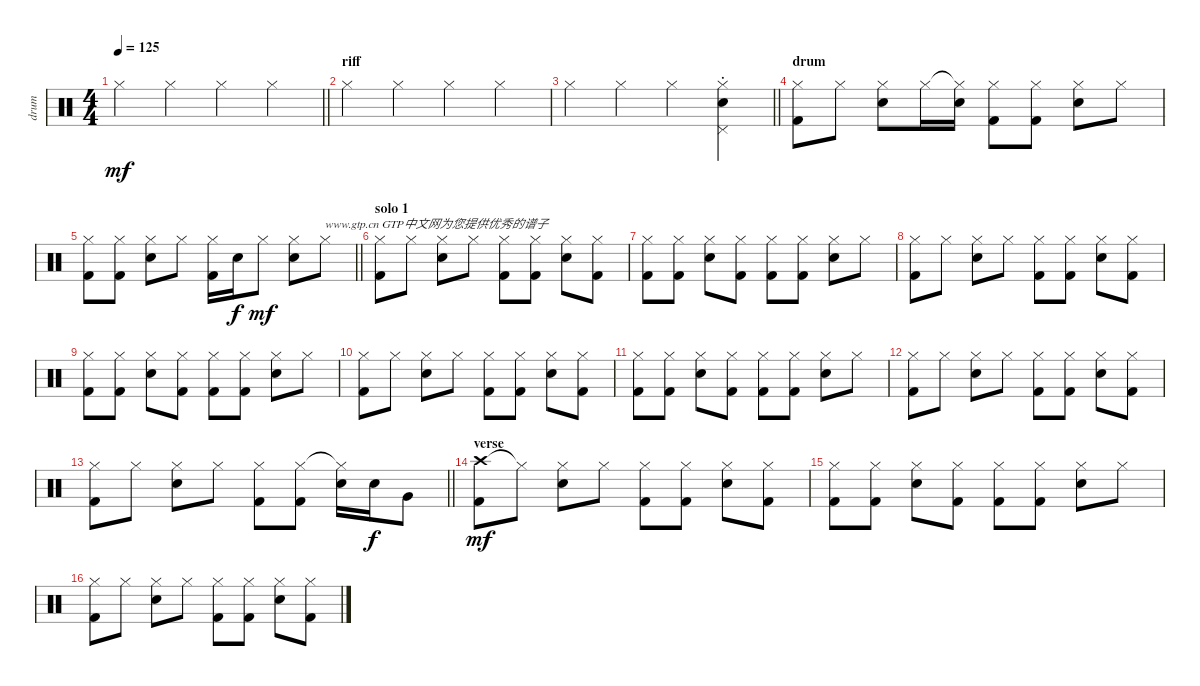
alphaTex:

\track ("drum" "drum") {instrument percussion}
\staff {score}
\articulation defaults
\ts (4 4)
\tempo 125
\clef neutral
\barLineRight lightlight
\ks c "Hi-Hat (closed)".4{dy mf} "Hi-Hat (closed)".4 "Hi-Hat (closed)".4 "Hi-Hat (closed)".4
|
\section ("" "riff")
"Hi-Hat (closed)".4 "Hi-Hat (closed)".4 "Hi-Hat (closed)".4 "Hi-Hat (closed)".4 |
\barLineRight lightlight "Hi-Hat (closed)".4 "Hi-Hat (closed)".4 "Hi-Hat (closed)".4
("Hi-Hat (closed)"{st} "Pedal Hi-Hat (hit)"{st} "Electric Snare (hit)"{st}).4 |
\section ("" "drum")
("Hi-Hat (closed)" "Kick (hit) 2").8 "Hi-Hat (closed)".8 ("Hi-Hat (closed)" "Electric Snare (hit)").8 "Hi-Hat (closed)".16 ("Hi-Hat (closed)"{t} "Electric Snare (hit)").16 ("Hi-Hat (closed)" "Kick (hit) 2").8 ("Hi-Hat (closed)" "Kick (hit) 2").8 ("Hi-Hat (closed)" "Electric Snare (hit)").8 "Hi-Hat (closed)".8 |
\barLineRight lightlight
("Hi-Hat (closed)" "Kick (hit) 2").8 ("Hi-Hat (closed)" "Kick (hit) 2").8 ("Hi-Hat (closed)" "Electric Snare (hit)").8 "Hi-Hat (closed)".8 ("Hi-Hat (closed)" "Kick (hit) 2").16 "Electric Snare (hit)".16{dy f} "Hi-Hat (closed)".8{dy mf} ("Hi-Hat (closed)" "Electric Snare (hit)").8 "Hi-Hat (closed)".8{txt "www.gtp.cn GTP中文网为您提供优秀的谱子"} |
\section ("" "solo 1")
("Hi-Hat (closed)" "Kick (hit) 2").8 "Hi-Hat (closed)".8 ("Hi-Hat (closed)" "Electric Snare (hit)").8 "Hi-Hat (closed)".8 ("Hi-Hat (closed)" "Kick (hit) 2").8 ("Hi-Hat (closed)" "Kick (hit) 2").8 ("Hi-Hat (closed)" "Electric Snare (hit)").8 ("Hi-Hat (closed)" "Kick (hit) 2").8 |
("Hi-Hat (closed)" "Kick (hit) 2").8 ("Hi-Hat (closed)" "Kick (hit) 2").8 ("Hi-Hat (closed)" "Electric Snare (hit)").8 ("Hi-Hat (closed)" "Kick (hit) 2").8 ("Hi-Hat (closed)" "Kick (hit) 2").8 ("Hi-Hat (closed)" "Kick (hit) 2").8 ("Hi-Hat (closed)" "Electric Snare (hit)").8 "Hi-Hat (closed)".8 |
("Hi-Hat (closed)" "Kick (hit) 2").8 "Hi-Hat (closed)".8 ("Hi-Hat (closed)" "Electric Snare (hit)").8 "Hi-Hat (closed)".8 ("Hi-Hat (closed)" "Kick (hit) 2").8 ("Hi-Hat (closed)" "Kick (hit) 2").8 ("Hi-Hat (closed)" "Electric Snare (hit)").8 ("Hi-Hat (closed)" "Kick (hit) 2").8 |
("Hi-Hat (closed)" "Kick (hit) 2").8 ("Hi-Hat (closed)" "Kick (hit) 2").8 ("Hi-Hat (closed)" "Electric Snare (hit)").8 ("Hi-Hat (closed)" "Kick (hit) 2").8 ("Hi-Hat (closed)" "Kick (hit) 2").8 ("Hi-Hat (closed)" "Kick (hit) 2").8 ("Hi-Hat (closed)" "Electric Snare (hit)").8 "Hi-Hat (closed)".8 |
("Hi-Hat (closed)" "Kick (hit) 2").8 "Hi-Hat (closed)".8 ("Hi-Hat (closed)" "Electric Snare (hit)").8 "Hi-Hat (closed)".8 ("Hi-Hat (closed)" "Kick (hit) 2").8 ("Hi-Hat (closed)" "Kick (hit) 2").8 ("Hi-Hat (closed)" "Electric Snare (hit)").8 ("Hi-Hat (closed)" "Kick (hit) 2").8 |
("Hi-Hat (closed)" "Kick (hit) 2").8 ("Hi-Hat (closed)" "Kick (hit) 2").8 ("Hi-Hat (closed)" "Electric Snare (hit)").8 ("Hi-Hat (closed)" "Kick (hit) 2").8 ("Hi-Hat (closed)" "Kick (hit) 2").8 ("Hi-Hat (closed)" "Kick (hit) 2").8 ("Hi-Hat (closed)" "Electric Snare (hit)").8 "Hi-Hat (closed)".8 |
("Hi-Hat (closed)" "Kick (hit) 2").8 "Hi-Hat (closed)".8 ("Hi-Hat (closed)" "Electric Snare (hit)").8 "Hi-Hat (closed)".8 ("Hi-Hat (closed)" "Kick (hit) 2").8 ("Hi-Hat (closed)" "Kick (hit) 2").8 ("Hi-Hat (closed)" "Electric Snare (hit)").8 ("Hi-Hat (closed)" "Kick (hit) 2").8 |
\barLineRight lightlight
("Hi-Hat (closed)" "Kick (hit) 2").8 "Hi-Hat (closed)".8 ("Hi-Hat (closed)" "Electric Snare (hit)").8 "Hi-Hat (closed)".8 ("Hi-Hat (closed)" "Kick (hit) 2").8 ("Hi-Hat (closed)" "Kick (hit) 2").8 ("Hi-Hat (closed)"{t} "Electric Snare (hit)").16 "Electric Snare (hit)".16{dy f} "Very Low Tom (hit)".8 |
\section ("" "verse")
("Crash high (hit)" "Kick (hit) 2").8{dy mf} "Hi-Hat (closed)"{t}.8 ("Hi-Hat (closed)" "Electric Snare (hit)").8 "Hi-Hat (closed)".8 ("Hi-Hat (closed)" "Kick (hit) 2").8 ("Hi-Hat (closed)" "Kick (hit) 2").8 ("Hi-Hat (closed)" "Electric Snare (hit)").8 ("Hi-Hat (closed)" "Kick (hit) 2").8 |
("Hi-Hat (closed)" "Kick (hit) 2").8 ("Hi-Hat (closed)" "Kick (hit) 2").8 ("Hi-Hat (closed)" "Electric Snare (hit)").8 ("Hi-Hat (closed)" "Kick (hit) 2").8 ("Hi-Hat (closed)" "Kick (hit) 2").8 ("Hi-Hat (closed)" "Kick (hit) 2").8 ("Hi-Hat (closed)" "Electric Snare (hit)").8 "Hi-Hat (closed)".8 |
("Hi-Hat (closed)" "Kick (hit) 2").8 "Hi-Hat (closed)".8 ("Hi-Hat (closed)" "Electric Snare (hit)").8 "Hi-Hat (closed)".8 ("Hi-Hat (closed)" "Kick (hit) 2").8 ("Hi-Hat (closed)" "Kick (hit) 2").8 ("Hi-Hat (closed)" "Electric Snare (hit)").8 ("Hi-Hat (closed)" "Kick (hit) 2").8
